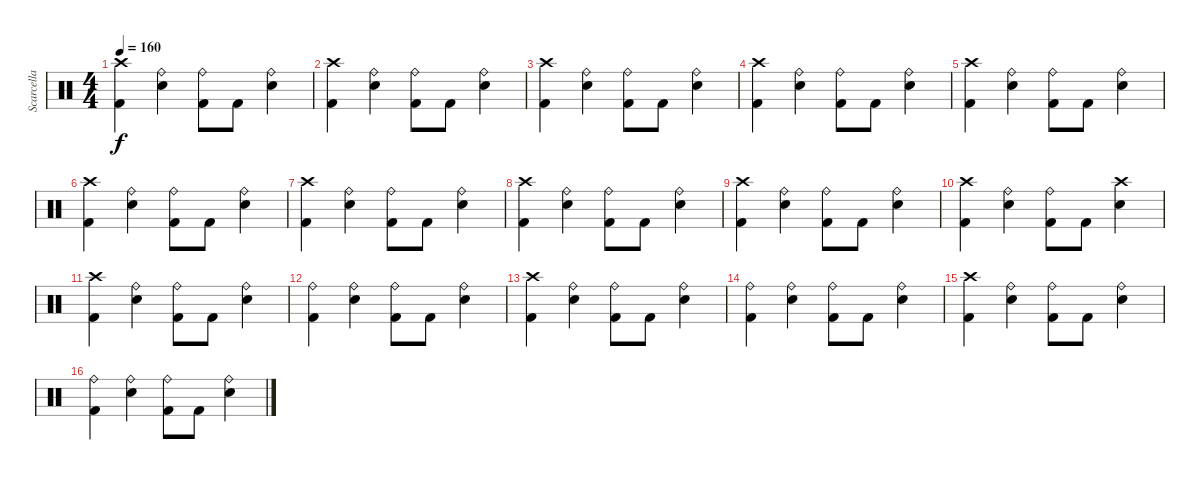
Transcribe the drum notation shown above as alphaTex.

\track ("Scarcella" "Scarcella") {instrument percussion}
\staff {score}
\articulation defaults
\ts (4 4)
\tempo 160
\clef neutral
\ks c
("Crash high (hit)" "Kick (hit) 2").4{dy f} ("Ride (bell)" "Snare (hit) 2").4 ("Ride (bell)" "Kick (hit) 2").8 "Kick (hit) 2".8 ("Ride (bell)" "Snare (hit) 2").4 |
("Crash high (hit)" "Kick (hit) 2").4 ("Ride (bell)" "Snare (hit) 2").4 ("Ride (bell)" "Kick (hit) 2").8 "Kick (hit) 2".8 ("Ride (bell)" "Snare (hit) 2").4 |
("Crash high (hit)" "Kick (hit) 2").4 ("Ride (bell)" "Snare (hit) 2").4 ("Ride (bell)" "Kick (hit) 2").8 "Kick (hit) 2".8 ("Ride (bell)" "Snare (hit) 2").4 |
("Crash high (hit)" "Kick (hit) 2").4 ("Ride (bell)" "Snare (hit) 2").4 ("Ride (bell)" "Kick (hit) 2").8 "Kick (hit) 2".8 ("Ride (bell)" "Snare (hit) 2").4 |
("Crash high (hit)" "Kick (hit) 2").4 ("Ride (bell)" "Snare (hit) 2").4 ("Ride (bell)" "Kick (hit) 2").8 "Kick (hit) 2".8 ("Ride (bell)" "Snare (hit) 2").4 |
("Crash high (hit)" "Kick (hit) 2").4 ("Ride (bell)" "Snare (hit) 2").4 ("Ride (bell)" "Kick (hit) 2").8 "Kick (hit) 2".8 ("Ride (bell)" "Snare (hit) 2").4 |
("Crash high (hit)" "Kick (hit) 2").4 ("Ride (bell)" "Snare (hit) 2").4 ("Ride (bell)" "Kick (hit) 2").8 "Kick (hit) 2".8 ("Ride (bell)" "Snare (hit) 2").4 |
("Crash high (hit)" "Kick (hit) 2").4 ("Ride (bell)" "Snare (hit) 2").4 ("Ride (bell)" "Kick (hit) 2").8 "Kick (hit) 2".8 ("Ride (bell)" "Snare (hit) 2").4 |
("Crash high (hit)" "Kick (hit) 2").4 ("Ride (bell)" "Snare (hit) 2").4 ("Ride (bell)" "Kick (hit) 2").8 "Kick (hit) 2".8 ("Ride (bell)" "Snare (hit) 2").4 |
("Crash high (hit)" "Kick (hit) 2").4 ("Ride (bell)" "Snare (hit) 2").4 ("Ride (bell)" "Kick (hit) 2").8 "Kick (hit) 2".8 ("Crash high (hit)" "Snare (hit) 2").4 |
("Crash high (hit)" "Kick (hit) 2").4 ("Ride (bell)" "Snare (hit) 2").4 ("Ride (bell)" "Kick (hit) 2").8 "Kick (hit) 2".8 ("Ride (bell)" "Snare (hit) 2").4 |
("Ride (bell)" "Kick (hit) 2").4 ("Ride (bell)" "Snare (hit) 2").4 ("Ride (bell)" "Kick (hit) 2").8 "Kick (hit) 2".8 ("Ride (bell)" "Snare (hit) 2").4 |
("Crash high (hit)" "Kick (hit) 2").4 ("Ride (bell)" "Snare (hit) 2").4 ("Ride (bell)" "Kick (hit) 2").8 "Kick (hit) 2".8 ("Ride (bell)" "Snare (hit) 2").4 |
("Ride (bell)" "Kick (hit) 2").4 ("Ride (bell)" "Snare (hit) 2").4 ("Ride (bell)" "Kick (hit) 2").8 "Kick (hit) 2".8 ("Ride (bell)" "Snare (hit) 2").4 |
("Crash high (hit)" "Kick (hit) 2").4 ("Ride (bell)" "Snare (hit) 2").4 ("Ride (bell)" "Kick (hit) 2").8 "Kick (hit) 2".8 ("Ride (bell)" "Snare (hit) 2").4 |
("Ride (bell)" "Kick (hit) 2").4 ("Ride (bell)" "Snare (hit) 2").4 ("Ride (bell)" "Kick (hit) 2").8 "Kick (hit) 2".8 ("Ride (bell)" "Snare (hit) 2").4
